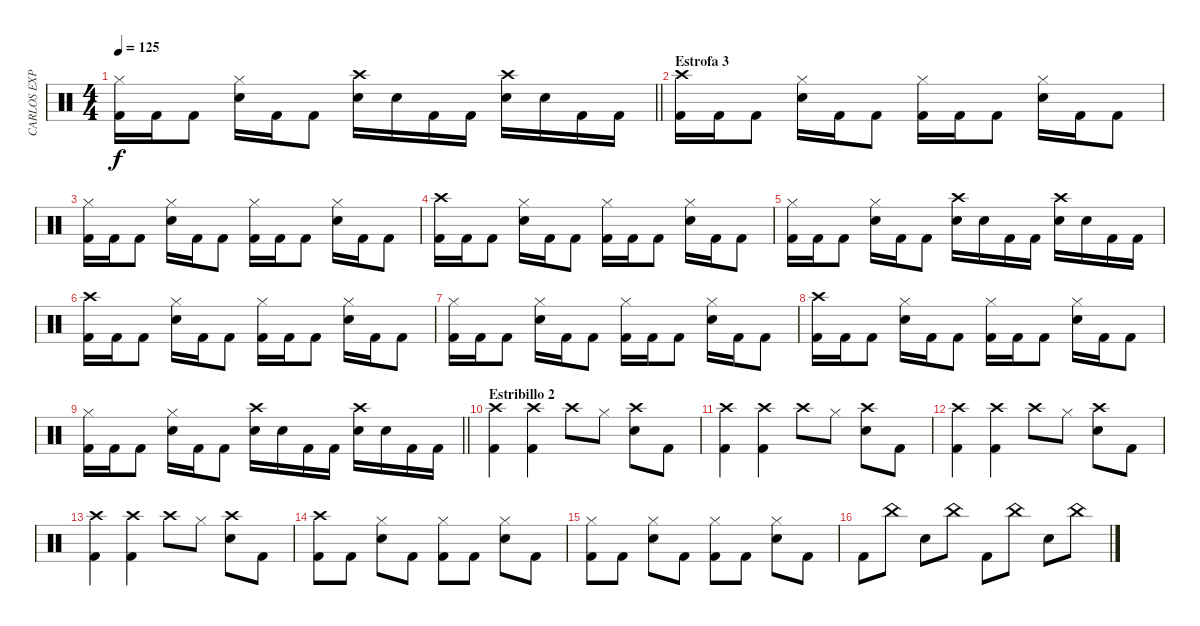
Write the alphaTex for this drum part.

\track ("CARLOS EXPÓSITO" "CARLOS EXP") {instrument percussion}
\staff {score}
\articulation defaults
\ts (4 4)
\tempo 125
\clef neutral
\barLineRight lightlight
\ks c
("Kick (hit) 2" "Hi-Hat (closed)").16{dy f} "Kick (hit) 2".16 "Kick (hit) 2".8 ("Snare (hit) 2" "Hi-Hat (closed)").16 "Kick (hit) 2".16 "Kick (hit) 2".8 ("Snare (hit) 2" "Crash high (hit)").16 "Snare (hit) 2".16 "Kick (hit) 2".16 "Kick (hit) 2".16 ("Snare (hit) 2" "Crash high (hit)").16 "Snare (hit) 2".16 "Kick (hit) 2".16 "Kick (hit) 2".16 |
\section ("" "Estrofa 3")
("Kick (hit) 2" "Crash high (hit)").16 "Kick (hit) 2".16 "Kick (hit) 2".8 ("Snare (hit) 2" "Hi-Hat (closed)").16 "Kick (hit) 2".16 "Kick (hit) 2".8 ("Kick (hit) 2" "Hi-Hat (closed)").16 "Kick (hit) 2".16 "Kick (hit) 2".8 ("Snare (hit) 2" "Hi-Hat (closed)").16 "Kick (hit) 2".16 "Kick (hit) 2".8 |
("Kick (hit) 2" "Hi-Hat (closed)").16 "Kick (hit) 2".16 "Kick (hit) 2".8 ("Snare (hit) 2" "Hi-Hat (closed)").16 "Kick (hit) 2".16 "Kick (hit) 2".8 ("Kick (hit) 2" "Hi-Hat (closed)").16 "Kick (hit) 2".16 "Kick (hit) 2".8 ("Snare (hit) 2" "Hi-Hat (closed)").16 "Kick (hit) 2".16 "Kick (hit) 2".8 |
("Kick (hit) 2" "Crash high (hit)").16 "Kick (hit) 2".16 "Kick (hit) 2".8 ("Snare (hit) 2" "Hi-Hat (closed)").16 "Kick (hit) 2".16 "Kick (hit) 2".8 ("Kick (hit) 2" "Hi-Hat (closed)").16 "Kick (hit) 2".16 "Kick (hit) 2".8 ("Snare (hit) 2" "Hi-Hat (closed)").16 "Kick (hit) 2".16 "Kick (hit) 2".8 |
("Kick (hit) 2" "Hi-Hat (closed)").16 "Kick (hit) 2".16 "Kick (hit) 2".8 ("Snare (hit) 2" "Hi-Hat (closed)").16 "Kick (hit) 2".16 "Kick (hit) 2".8 ("Snare (hit) 2" "Crash high (hit)").16 "Snare (hit) 2".16 "Kick (hit) 2".16 "Kick (hit) 2".16 ("Snare (hit) 2" "Crash high (hit)").16 "Snare (hit) 2".16 "Kick (hit) 2".16 "Kick (hit) 2".16 |
("Kick (hit) 2" "Crash high (hit)").16 "Kick (hit) 2".16 "Kick (hit) 2".8 ("Snare (hit) 2" "Hi-Hat (closed)").16 "Kick (hit) 2".16 "Kick (hit) 2".8 ("Kick (hit) 2" "Hi-Hat (closed)").16 "Kick (hit) 2".16 "Kick (hit) 2".8 ("Snare (hit) 2" "Hi-Hat (closed)").16 "Kick (hit) 2".16 "Kick (hit) 2".8 |
("Kick (hit) 2" "Hi-Hat (closed)").16 "Kick (hit) 2".16 "Kick (hit) 2".8 ("Snare (hit) 2" "Hi-Hat (closed)").16 "Kick (hit) 2".16 "Kick (hit) 2".8 ("Kick (hit) 2" "Hi-Hat (closed)").16 "Kick (hit) 2".16 "Kick (hit) 2".8 ("Snare (hit) 2" "Hi-Hat (closed)").16 "Kick (hit) 2".16 "Kick (hit) 2".8 |
("Kick (hit) 2" "Crash high (hit)").16 "Kick (hit) 2".16 "Kick (hit) 2".8 ("Snare (hit) 2" "Hi-Hat (closed)").16 "Kick (hit) 2".16 "Kick (hit) 2".8 ("Kick (hit) 2" "Hi-Hat (closed)").16 "Kick (hit) 2".16 "Kick (hit) 2".8 ("Snare (hit) 2" "Hi-Hat (closed)").16 "Kick (hit) 2".16 "Kick (hit) 2".8 |
\barLineRight lightlight
("Kick (hit) 2" "Hi-Hat (closed)").16 "Kick (hit) 2".16 "Kick (hit) 2".8 ("Snare (hit) 2" "Hi-Hat (closed)").16 "Kick (hit) 2".16 "Kick (hit) 2".8 ("Snare (hit) 2" "Crash high (hit)").16 "Snare (hit) 2".16 "Kick (hit) 2".16 "Kick (hit) 2".16 ("Snare (hit) 2" "Crash high (hit)").16 "Snare (hit) 2".16 "Kick (hit) 2".16 "Kick (hit) 2".16 |
\section ("" "Estribillo 2")
("Crash high (hit)" "Kick (hit) 2").4 ("Kick (hit) 2" "Crash high (hit)").4 "Crash high (hit)".8 "Hi-Hat (closed)".8 ("Crash high (hit)" "Snare (hit) 2").8 "Kick (hit) 2".8 |
("Crash high (hit)" "Kick (hit) 2").4 ("Kick (hit) 2" "Crash high (hit)").4 "Crash high (hit)".8 "Hi-Hat (closed)".8 ("Crash high (hit)" "Snare (hit) 2").8 "Kick (hit) 2".8 |
("Crash high (hit)" "Kick (hit) 2").4 ("Kick (hit) 2" "Crash high (hit)").4 "Crash high (hit)".8 "Hi-Hat (closed)".8 ("Crash high (hit)" "Snare (hit) 2").8 "Kick (hit) 2".8 |
("Crash high (hit)" "Kick (hit) 2").4 ("Kick (hit) 2" "Crash high (hit)").4 "Crash high (hit)".8 "Hi-Hat (closed)".8 ("Crash high (hit)" "Snare (hit) 2").8 "Kick (hit) 2".8 |
("Crash high (hit)" "Kick (hit) 2").8 "Kick (hit) 2".8 ("Hi-Hat (closed)" "Snare (hit) 2").8 "Kick (hit) 2".8 ("Hi-Hat (closed)" "Kick (hit) 2").8 "Kick (hit) 2".8 ("Hi-Hat (closed)" "Snare (hit) 2").8 "Kick (hit) 2".8 |
("Hi-Hat (closed)" "Kick (hit) 2").8 "Kick (hit) 2".8 ("Hi-Hat (closed)" "Snare (hit) 2").8 "Kick (hit) 2".8 ("Hi-Hat (closed)" "Kick (hit) 2").8 "Kick (hit) 2".8 ("Hi-Hat (closed)" "Snare (hit) 2").8 "Kick (hit) 2".8 |
"Kick (hit) 2".8 "China (hit)".8 "Snare (hit) 2".8 "China (hit)".8 "Kick (hit) 2".8 "China (hit)".8 "Snare (hit) 2".8 "China (hit)".8
